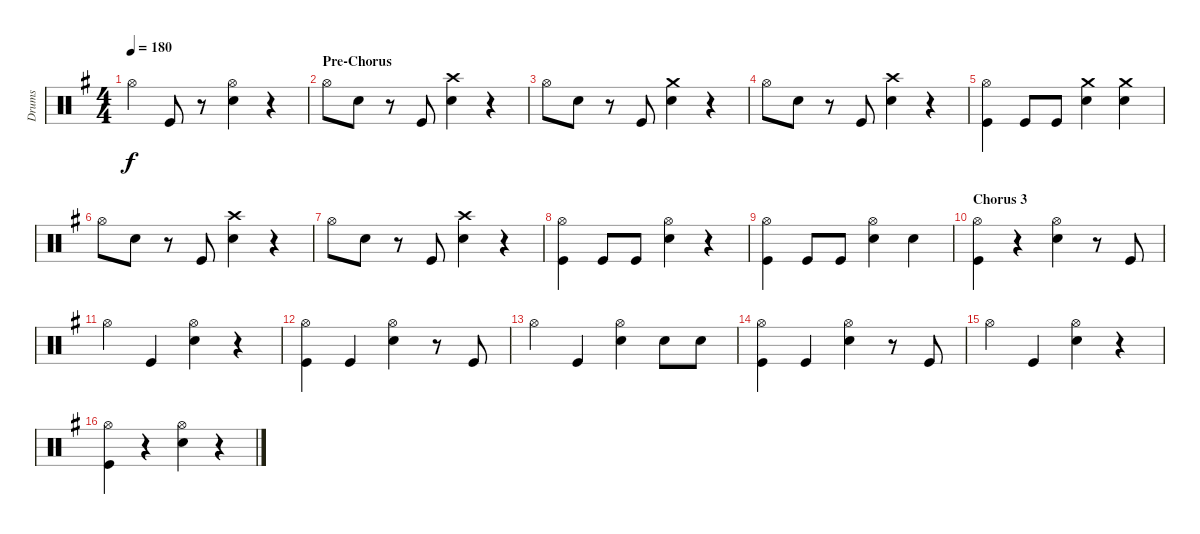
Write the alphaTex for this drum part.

\track ("Drums" "Drums") {instrument percussion}
\staff {score}
\articulation defaults
\ts (4 4)
\tempo 180
\clef neutral
\ks eminor "Hi-Hat (open)".4{dy f} "Kick (hit)".8
r.8 ("Hi-Hat (open)" "Snare (hit) 2").4 r.4 |
\section ("" "Pre-Chorus")
"Hi-Hat (open)".8 "Snare (hit) 2".8 r.8 "Kick (hit)".8 ("Crash high (hit)" "Snare (hit) 2").4 r.4 |
"Hi-Hat (open)".8 "Snare (hit) 2".8 r.8 "Kick (hit)".8 ("Crash medium (hit)" "Snare (hit) 2").4 r.4 |
"Hi-Hat (open)".8 "Snare (hit) 2".8 r.8 "Kick (hit)".8 ("Crash high (hit)" "Snare (hit) 2").4 r.4 |
("Hi-Hat (open)" "Kick (hit)").4 "Kick (hit)".8 "Kick (hit)".8 ("Crash medium (hit)" "Snare (hit) 2").4 ("Crash medium (hit)" "Snare (hit) 2").4 |
"Hi-Hat (open)".8 "Snare (hit) 2".8 r.8 "Kick (hit)".8 ("Crash high (hit)" "Snare (hit) 2").4 r.4 |
"Hi-Hat (open)".8 "Snare (hit) 2".8 r.8 "Kick (hit)".8 ("Crash high (hit)" "Snare (hit) 2").4 r.4 |
("Hi-Hat (open)" "Kick (hit)").4 "Kick (hit)".8 "Kick (hit)".8 ("Hi-Hat (open)" "Snare (hit) 2").4 r.4 |
("Hi-Hat (open)" "Kick (hit)").4 "Kick (hit)".8 "Kick (hit)".8 ("Hi-Hat (open)" "Snare (hit) 2").4 "Snare (hit) 2".4 |
\section ("" "Chorus 3")
("Hi-Hat (open)" "Kick (hit)").4 r.4 ("Hi-Hat (open)" "Snare (hit) 2").4 r.8 "Kick (hit)".8 |
"Hi-Hat (open)".4 "Kick (hit)".4 ("Hi-Hat (open)" "Snare (hit) 2").4 r.4 |
("Hi-Hat (open)" "Kick (hit)").4 "Kick (hit)".4 ("Hi-Hat (open)" "Snare (hit) 2").4 r.8 "Kick (hit)".8 |
"Hi-Hat (open)".4 "Kick (hit)".4 ("Hi-Hat (open)" "Snare (hit) 2").4 "Snare (hit) 2".8 "Snare (hit) 2".8 |
("Hi-Hat (open)" "Kick (hit)").4 "Kick (hit)".4 ("Hi-Hat (open)" "Snare (hit) 2").4 r.8 "Kick (hit)".8 |
"Hi-Hat (open)".4 "Kick (hit)".4 ("Hi-Hat (open)" "Snare (hit) 2").4 r.4 |
("Hi-Hat (open)" "Kick (hit)").4 r.4 ("Hi-Hat (open)" "Snare (hit) 2").4 r.4
